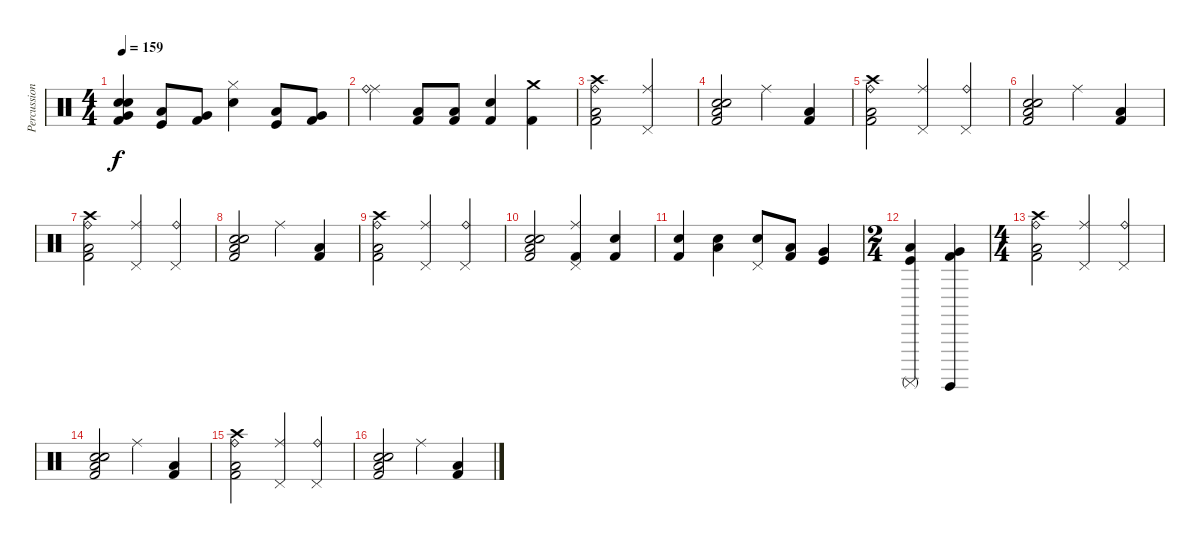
\track ("Percussions" "Percussion") {instrument percussion}
\staff {score}
\articulation defaults
\ts (4 4)
\tempo 159
\clef neutral
\ks c
("Kick (hit) 2" "Very Low Tom (hit)" "Snare (hit) 2" "Electric Snare (hit)").4{dy f} ("Low Tom (hit)" "Kick (hit)").8 ("Kick (hit) 2" "Very Low Tom (hit)").8 ("Electric Snare (hit)" "Hi-Hat (closed)").4 ("Low Tom (hit)" "Kick (hit)").8 ("Very Low Tom (hit)" "Kick (hit) 2").8 |
("Ride (middle)" "Ride (bell)").4 ("Low Tom (hit)" "Kick (hit) 2").8 ("Low Tom (hit)" "Kick (hit) 2").8 ("Electric Snare (hit)" "Kick (hit) 2").4 ("Crash medium (hit)" "Kick (hit) 2").4 |
("Ride (bell)" "Crash high (hit)" "Low Tom (hit)" "Kick (hit) 2").2 ("Ride (middle)" "Pedal Hi-Hat (hit)").2 |
("Kick (hit) 2" "Low Tom (hit)" "Snare (hit) 2" "Electric Snare (hit)").2 "Ride (middle)".4 ("Low Tom (hit)" "Kick (hit) 2").4 |
("Ride (bell)" "Crash high (hit)" "Low Tom (hit)" "Kick (hit) 2").2 ("Ride (middle)" "Pedal Hi-Hat (hit)").4 ("Pedal Hi-Hat (hit)" "Ride (bell)").4 |
("Kick (hit) 2" "Low Tom (hit)" "Snare (hit) 2" "Electric Snare (hit)").2 "Ride (middle)".4 ("Low Tom (hit)" "Kick (hit) 2").4 |
("Ride (bell)" "Crash high (hit)" "Low Tom (hit)" "Kick (hit) 2").2 ("Ride (middle)" "Pedal Hi-Hat (hit)").4 ("Pedal Hi-Hat (hit)" "Ride (bell)").4 |
("Kick (hit) 2" "Low Tom (hit)" "Snare (hit) 2" "Electric Snare (hit)").2 "Ride (middle)".4 ("Low Tom (hit)" "Kick (hit) 2").4 |
("Ride (bell)" "Crash high (hit)" "Low Tom (hit)" "Kick (hit) 2").2 ("Ride (middle)" "Pedal Hi-Hat (hit)").4 ("Pedal Hi-Hat (hit)" "Ride (bell)").4 |
("Kick (hit) 2" "Low Tom (hit)" "Snare (hit) 2" "Electric Snare (hit)").2 ("Ride (middle)" "Pedal Hi-Hat (hit)" "Kick (hit) 2").4 ("Kick (hit) 2" "Electric Snare (hit)").4 |
("Kick (hit) 2" "Electric Snare (hit)").4 ("Low Tom (hit)" "Electric Snare (hit)").4 ("Pedal Hi-Hat (hit)" "Snare (hit) 2").8 ("Low Tom (hit)" "Kick (hit) 2").8 ("Very Low Tom (hit)" "Kick (hit)").4 |
\ts (2 4)
("Surdo (mute)" "Low Tom (hit)" "Kick (hit)").4 ("Surdo (hit)" "Very Low Tom (hit)" "Kick (hit) 2").4 |
\ts (4 4)
("Ride (bell)" "Crash high (hit)" "Low Tom (hit)" "Kick (hit) 2").2 ("Ride (middle)" "Pedal Hi-Hat (hit)").4 ("Pedal Hi-Hat (hit)" "Ride (bell)").4 |
("Kick (hit) 2" "Low Tom (hit)" "Snare (hit) 2" "Electric Snare (hit)").2 "Ride (middle)".4 ("Low Tom (hit)" "Kick (hit) 2").4 |
("Ride (bell)" "Crash high (hit)" "Low Tom (hit)" "Kick (hit) 2").2 ("Ride (middle)" "Pedal Hi-Hat (hit)").4 ("Pedal Hi-Hat (hit)" "Ride (bell)").4 |
("Kick (hit) 2" "Low Tom (hit)" "Snare (hit) 2" "Electric Snare (hit)").2 "Ride (middle)".4 ("Low Tom (hit)" "Kick (hit) 2").4
